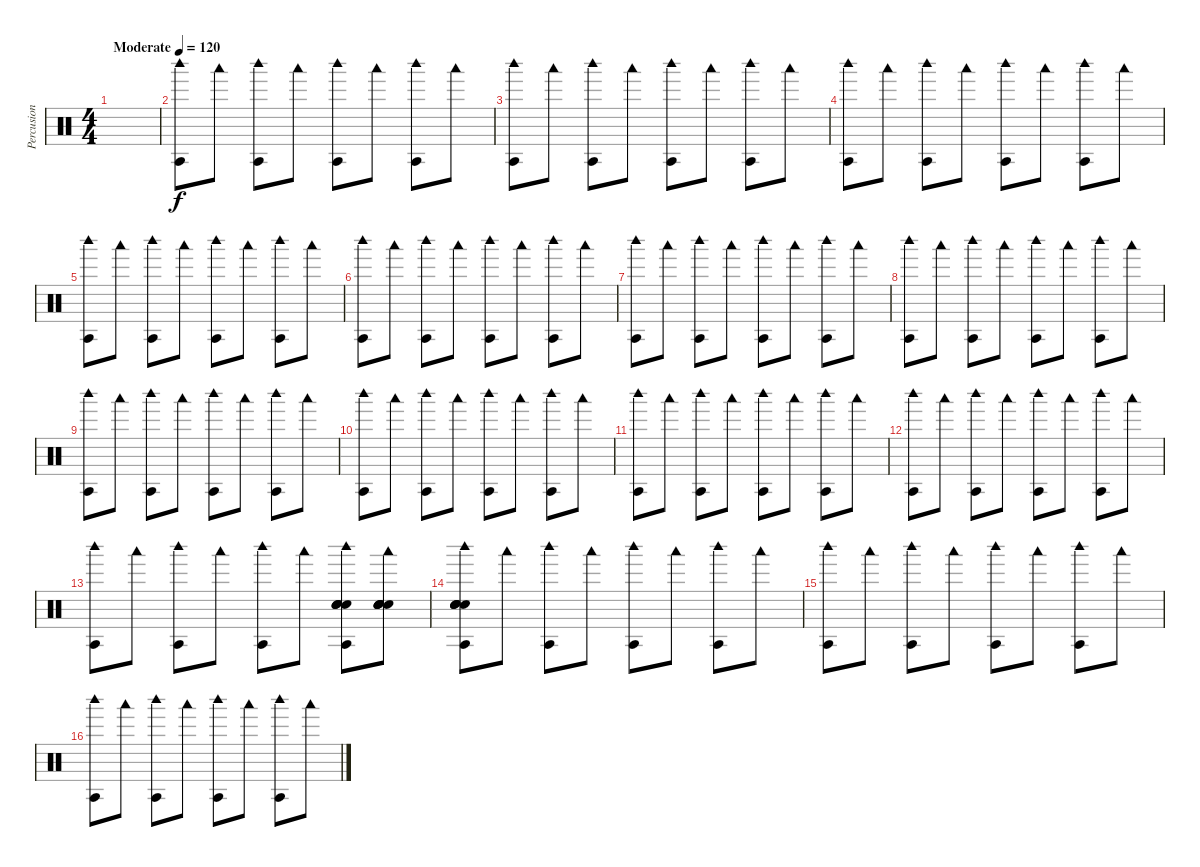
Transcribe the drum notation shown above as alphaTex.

\track ("Percusion" "Percusion") {instrument percussion}
\staff
\articulation defaults
\ts (4 4)
\tempo (120 "Moderate")
\clef neutral
\ks c
|
("Woodblock high (hit)" "Agogo tow (hit)").8 "Woodblock low (hit)".8 ("Woodblock high (hit)" "Agogo tow (hit)").8 "Woodblock low (hit)".8 ("Woodblock high (hit)" "Agogo tow (hit)").8 "Woodblock low (hit)".8 ("Woodblock high (hit)" "Agogo tow (hit)").8 "Woodblock low (hit)".8 |
("Woodblock high (hit)" "Agogo tow (hit)").8 "Woodblock low (hit)".8 ("Woodblock high (hit)" "Agogo tow (hit)").8 "Woodblock low (hit)".8 ("Woodblock high (hit)" "Agogo tow (hit)").8 "Woodblock low (hit)".8 ("Woodblock high (hit)" "Agogo tow (hit)").8 "Woodblock low (hit)".8 |
("Woodblock high (hit)" "Agogo tow (hit)").8 "Woodblock low (hit)".8 ("Woodblock high (hit)" "Agogo tow (hit)").8 "Woodblock low (hit)".8 ("Woodblock high (hit)" "Agogo tow (hit)").8 "Woodblock low (hit)".8 ("Woodblock high (hit)" "Agogo tow (hit)").8 "Woodblock low (hit)".8 |
("Woodblock high (hit)" "Agogo tow (hit)").8 "Woodblock low (hit)".8 ("Woodblock high (hit)" "Agogo tow (hit)").8 "Woodblock low (hit)".8 ("Woodblock high (hit)" "Agogo tow (hit)").8 "Woodblock low (hit)".8 ("Woodblock high (hit)" "Agogo tow (hit)").8 "Woodblock low (hit)".8 |
("Woodblock high (hit)" "Agogo tow (hit)").8 "Woodblock low (hit)".8 ("Woodblock high (hit)" "Agogo tow (hit)").8 "Woodblock low (hit)".8 ("Woodblock high (hit)" "Agogo tow (hit)").8 "Woodblock low (hit)".8 ("Woodblock high (hit)" "Agogo tow (hit)").8 "Woodblock low (hit)".8 |
("Woodblock high (hit)" "Agogo tow (hit)").8 "Woodblock low (hit)".8 ("Woodblock high (hit)" "Agogo tow (hit)").8 "Woodblock low (hit)".8 ("Woodblock high (hit)" "Agogo tow (hit)").8 "Woodblock low (hit)".8 ("Woodblock high (hit)" "Agogo tow (hit)").8 "Woodblock low (hit)".8 |
("Woodblock high (hit)" "Agogo tow (hit)").8 "Woodblock low (hit)".8 ("Woodblock high (hit)" "Agogo tow (hit)").8 "Woodblock low (hit)".8 ("Woodblock high (hit)" "Agogo tow (hit)").8 "Woodblock low (hit)".8 ("Woodblock high (hit)" "Agogo tow (hit)").8 "Woodblock low (hit)".8 |
("Woodblock high (hit)" "Agogo tow (hit)").8 "Woodblock low (hit)".8 ("Woodblock high (hit)" "Agogo tow (hit)").8 "Woodblock low (hit)".8 ("Woodblock high (hit)" "Agogo tow (hit)").8 "Woodblock low (hit)".8 ("Woodblock high (hit)" "Agogo tow (hit)").8 "Woodblock low (hit)".8 |
("Woodblock high (hit)" "Agogo tow (hit)").8 "Woodblock low (hit)".8 ("Woodblock high (hit)" "Agogo tow (hit)").8 "Woodblock low (hit)".8 ("Woodblock high (hit)" "Agogo tow (hit)").8 "Woodblock low (hit)".8 ("Woodblock high (hit)" "Agogo tow (hit)").8 "Woodblock low (hit)".8 |
("Woodblock high (hit)" "Agogo tow (hit)").8 "Woodblock low (hit)".8 ("Woodblock high (hit)" "Agogo tow (hit)").8 "Woodblock low (hit)".8 ("Woodblock high (hit)" "Agogo tow (hit)").8 "Woodblock low (hit)".8 ("Woodblock high (hit)" "Agogo tow (hit)").8 "Woodblock low (hit)".8 |
("Woodblock high (hit)" "Agogo tow (hit)").8 "Woodblock low (hit)".8 ("Woodblock high (hit)" "Agogo tow (hit)").8 "Woodblock low (hit)".8 ("Woodblock high (hit)" "Agogo tow (hit)").8 "Woodblock low (hit)".8 ("Woodblock high (hit)" "Agogo tow (hit)").8 "Woodblock low (hit)".8 |
("Woodblock high (hit)" "Agogo tow (hit)").8 "Woodblock low (hit)".8 ("Woodblock high (hit)" "Agogo tow (hit)").8 "Woodblock low (hit)".8 ("Woodblock high (hit)" "Agogo tow (hit)").8 "Woodblock low (hit)".8 ("Woodblock high (hit)" "Agogo tow (hit)" "Hand Clap (hit)" "Hand Clap (hit)" "Hand Clap (hit)" "Hand Clap (hit)").8 ("Hand Clap (hit)" "Woodblock low (hit)" "Hand Clap (hit)" "Hand Clap (hit)" "Hand Clap (hit)" "Hand Clap (hit)").8 |
("Woodblock high (hit)" "Agogo tow (hit)" "Hand Clap (hit)" "Hand Clap (hit)" "Hand Clap (hit)" "Hand Clap (hit)").8 "Woodblock low (hit)".8 ("Woodblock high (hit)" "Agogo tow (hit)").8 "Woodblock low (hit)".8 ("Woodblock high (hit)" "Agogo tow (hit)").8 "Woodblock low (hit)".8 ("Woodblock high (hit)" "Agogo tow (hit)").8 "Woodblock low (hit)".8 |
("Woodblock high (hit)" "Agogo tow (hit)").8 "Woodblock low (hit)".8 ("Woodblock high (hit)" "Agogo tow (hit)").8 "Woodblock low (hit)".8 ("Woodblock high (hit)" "Agogo tow (hit)").8 "Woodblock low (hit)".8 ("Woodblock high (hit)" "Agogo tow (hit)").8 "Woodblock low (hit)".8 |
("Woodblock high (hit)" "Agogo tow (hit)").8 "Woodblock low (hit)".8 ("Woodblock high (hit)" "Agogo tow (hit)").8 "Woodblock low (hit)".8 ("Woodblock high (hit)" "Agogo tow (hit)").8 "Woodblock low (hit)".8 ("Woodblock high (hit)" "Agogo tow (hit)").8 "Woodblock low (hit)".8
